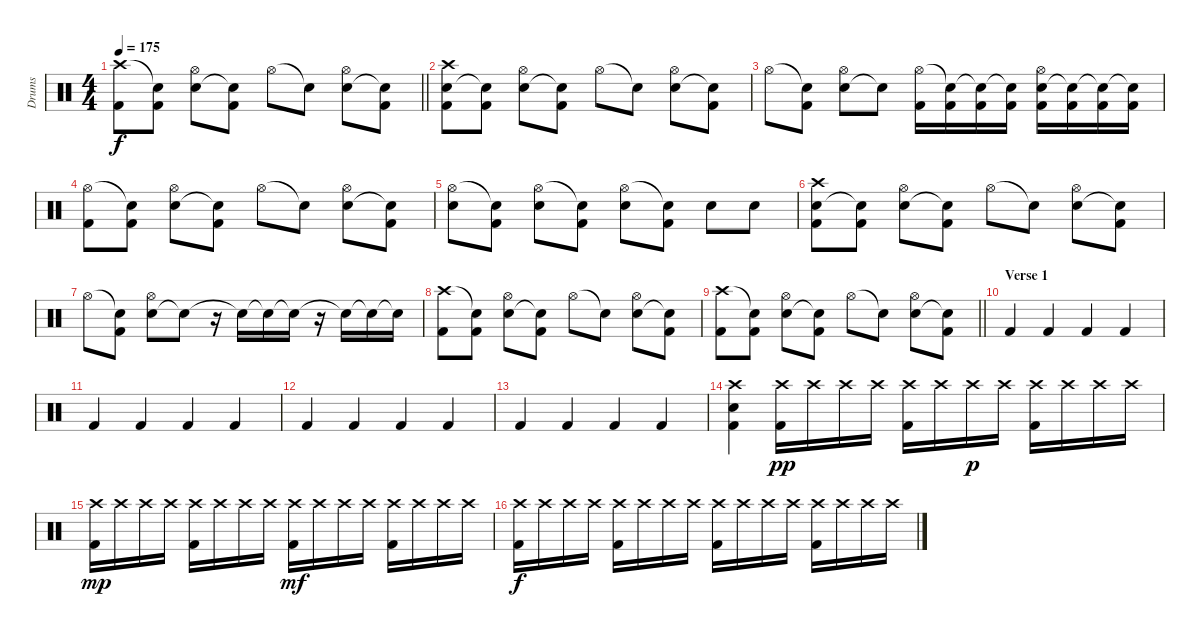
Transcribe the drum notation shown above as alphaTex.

\track ("Drums" "Drums") {instrument percussion}
\staff {score}
\articulation defaults
\ts (4 4)
\tempo 175
\clef neutral
\barLineRight lightlight
\ks c
("Crash high (hit)" "Kick (hit) 2").8{dy f} ("Snare (hit)"{t} "Kick (hit) 2").8 ("Snare (hit) 2" "Hi-Hat (open)").8 ("Snare (hit)"{t} "Kick (hit) 2").8 "Hi-Hat (open)".8 "Snare (hit)"{t}.8 ("Snare (hit) 2" "Hi-Hat (open)").8 ("Snare (hit)"{t} "Kick (hit) 2").8 |
("Snare (hit) 2" "Crash high (hit)" "Kick (hit) 2").8 ("Snare (hit)"{t} "Kick (hit) 2").8 ("Snare (hit) 2" "Hi-Hat (open)").8 ("Snare (hit)"{t} "Kick (hit) 2").8 "Hi-Hat (open)".8 "Snare (hit)"{t}.8 ("Snare (hit) 2" "Hi-Hat (open)").8 ("Snare (hit)"{t} "Kick (hit) 2").8 |
"Hi-Hat (open)".8 ("Snare (hit)"{t} "Kick (hit) 2").8 ("Snare (hit) 2" "Hi-Hat (open)").8 "Snare (hit)"{t}.8 ("Hi-Hat (open)" "Kick (hit) 2").16 ("Snare (hit)"{t} "Kick (hit) 2").16 ("Snare (hit)"{t} "Kick (hit) 2").16 ("Snare (hit)"{t} "Kick (hit) 2").16 ("Snare (hit) 2" "Hi-Hat (open)" "Kick (hit) 2").16 ("Snare (hit)"{t} "Kick (hit) 2").16 ("Snare (hit)"{t} "Kick (hit) 2").16 ("Snare (hit)"{t} "Kick (hit) 2").16 |
("Hi-Hat (open)" "Kick (hit) 2").8 ("Snare (hit)"{t} "Kick (hit) 2").8 ("Snare (hit) 2" "Hi-Hat (open)").8 ("Snare (hit)"{t} "Kick (hit) 2").8 "Hi-Hat (open)".8 "Snare (hit)"{t}.8 ("Snare (hit) 2" "Hi-Hat (open)").8 ("Snare (hit)"{t} "Kick (hit) 2").8 |
("Hi-Hat (open)" "Snare (hit) 2").8 ("Snare (hit)"{t} "Kick (hit) 2").8 ("Hi-Hat (open)" "Snare (hit) 2").8 ("Snare (hit)"{t} "Kick (hit) 2").8 ("Hi-Hat (open)" "Snare (hit) 2").8 ("Snare (hit)"{t} "Kick (hit) 2").8 "Snare (hit) 2".8 "Snare (hit) 2".8 |
("Snare (hit) 2" "Crash high (hit)" "Kick (hit) 2").8 ("Snare (hit)"{t} "Kick (hit) 2").8 ("Snare (hit) 2" "Hi-Hat (open)").8 ("Snare (hit)"{t} "Kick (hit) 2").8 "Hi-Hat (open)".8 "Snare (hit)"{t}.8 ("Snare (hit) 2" "Hi-Hat (open)").8 ("Snare (hit)"{t} "Kick (hit) 2").8 |
"Hi-Hat (open)".8 ("Snare (hit)"{t} "Kick (hit) 2").8 ("Snare (hit) 2" "Hi-Hat (open)").8 "Snare (hit)"{t}.8 r.16 "Snare (hit)"{t}.16 "Snare (hit)"{t}.16 "Snare (hit)"{t}.16 r.16 "Snare (hit)"{t}.16 "Snare (hit)"{t}.16 "Snare (hit)"{t}.16 |
("Crash high (hit)" "Kick (hit) 2").8 ("Snare (hit)"{t} "Kick (hit) 2").8 ("Snare (hit) 2" "Hi-Hat (open)").8 ("Snare (hit)"{t} "Kick (hit) 2").8 "Hi-Hat (open)".8 "Snare (hit)"{t}.8 ("Snare (hit) 2" "Hi-Hat (open)").8 ("Snare (hit)"{t} "Kick (hit) 2").8 |
\barLineRight lightlight
("Crash high (hit)" "Kick (hit) 2").8 ("Snare (hit)"{t} "Kick (hit) 2").8 ("Snare (hit) 2" "Hi-Hat (open)").8 ("Snare (hit)"{t} "Kick (hit) 2").8 "Hi-Hat (open)".8 "Snare (hit)"{t}.8 ("Snare (hit) 2" "Hi-Hat (open)").8 ("Snare (hit)"{t} "Kick (hit) 2").8 |
\section ("" "Verse 1")
"Kick (hit) 2".4 "Kick (hit) 2".4 "Kick (hit) 2".4 "Kick (hit) 2".4 |
"Kick (hit) 2".4 "Kick (hit) 2".4 "Kick (hit) 2".4 "Kick (hit) 2".4 |
"Kick (hit) 2".4 "Kick (hit) 2".4 "Kick (hit) 2".4 "Kick (hit) 2".4 |
"Kick (hit) 2".4 "Kick (hit) 2".4 "Kick (hit) 2".4 "Kick (hit) 2".4 |
("Crash high (hit)" "Electric Snare (hit)" "Kick (hit) 2").4 ("Crash high (hit)" "Kick (hit) 2").16{dy pp} "Crash high (hit)".16 "Crash high (hit)".16 "Crash high (hit)".16 ("Crash high (hit)" "Kick (hit) 2").16 "Crash high (hit)".16 "Crash high (hit)".16{dy p} "Crash high (hit)".16 ("Crash high (hit)" "Kick (hit) 2").16 "Crash high (hit)".16 "Crash high (hit)".16 "Crash high (hit)".16 |
("Crash high (hit)" "Kick (hit) 2").16{dy mp} "Crash high (hit)".16 "Crash high (hit)".16 "Crash high (hit)".16 ("Crash high (hit)" "Kick (hit) 2").16 "Crash high (hit)".16 "Crash high (hit)".16 "Crash high (hit)".16 ("Crash high (hit)" "Kick (hit) 2").16{dy mf} "Crash high (hit)".16 "Crash high (hit)".16 "Crash high (hit)".16 ("Crash high (hit)" "Kick (hit) 2").16 "Crash high (hit)".16 "Crash high (hit)".16 "Crash high (hit)".16 |
("Crash high (hit)" "Kick (hit) 2").16{dy f} "Crash high (hit)".16 "Crash high (hit)".16 "Crash high (hit)".16 ("Crash high (hit)" "Kick (hit) 2").16 "Crash high (hit)".16 "Crash high (hit)".16 "Crash high (hit)".16 ("Crash high (hit)" "Kick (hit) 2").16 "Crash high (hit)".16 "Crash high (hit)".16 "Crash high (hit)".16 ("Crash high (hit)" "Kick (hit) 2").16 "Crash high (hit)".16 "Crash high (hit)".16 "Crash high (hit)".16
